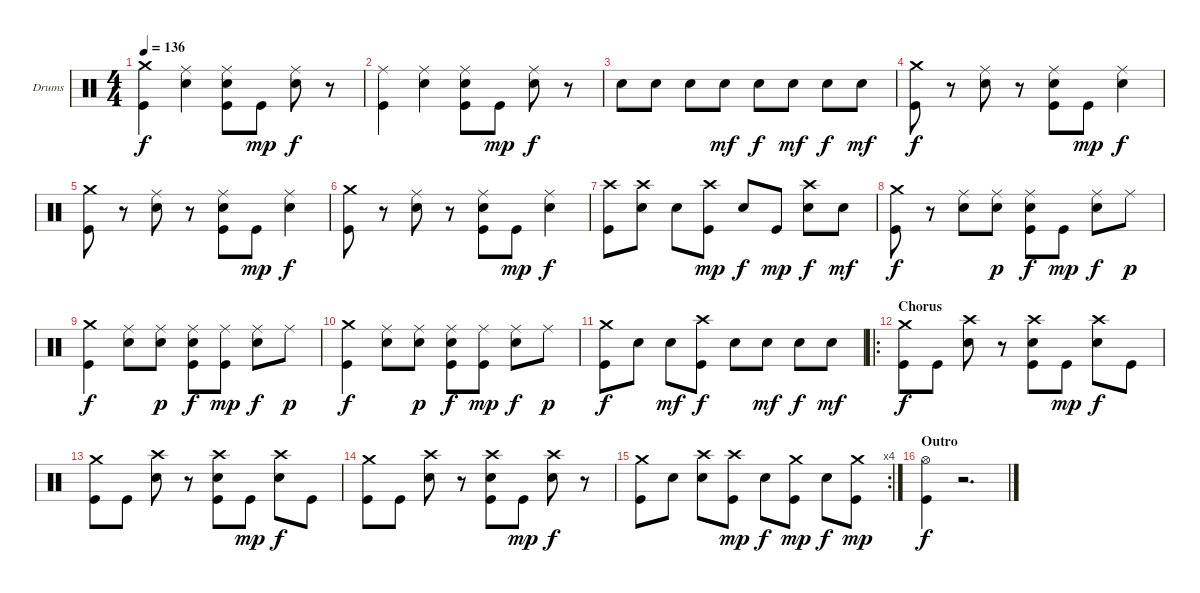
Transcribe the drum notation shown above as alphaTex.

\bracketExtendMode groupsimilarinstruments
\firstSystemTrackNameOrientation horizontal
\otherSystemsTrackNameOrientation horizontal
\track ("Drumkit" "Drums") {instrument percussion}
\staff {score}
\articulation defaults
\ts (4 4)
\tempo 136
\clef neutral
\ks c
("Kick (hit)" "Crash medium (hit)").4{dy f} ("Snare (hit) 2" "Ride (middle)").4 ("Snare (hit) 2" "Kick (hit)" "Ride (middle)").8 "Kick (hit)".8{dy mp} ("Snare (hit) 2" "Ride (middle)").8{dy f} r.8 |
("Kick (hit)" "Ride (middle)").4 ("Snare (hit) 2" "Ride (middle)").4 ("Snare (hit) 2" "Kick (hit)" "Ride (middle)").8 "Kick (hit)".8{dy mp} ("Snare (hit) 2" "Ride (middle)").8{dy f} r.8 |
"Snare (hit) 2".8 "Snare (hit) 2".8 "Snare (hit) 2".8 "Snare (hit) 2".8{dy mf} "Snare (hit) 2".8{dy f} "Snare (hit) 2".8{dy mf} "Snare (hit) 2".8{dy f} "Snare (hit) 2".8{dy mf} |
("Kick (hit)" "Crash medium (hit)").8{dy f} r.8 ("Snare (hit) 2" "Ride (middle)").8 r.8 ("Snare (hit) 2" "Kick (hit)" "Ride (middle)").8 "Kick (hit)".8{dy mp} ("Snare (hit) 2" "Ride (middle)").4{dy f} |
("Kick (hit)" "Crash medium (hit)").8 r.8 ("Snare (hit) 2" "Ride (middle)").8 r.8 ("Snare (hit) 2" "Kick (hit)" "Ride (middle)").8 "Kick (hit)".8{dy mp} ("Snare (hit) 2" "Ride (middle)").4{dy f} |
("Kick (hit)" "Crash medium (hit)").8 r.8 ("Snare (hit) 2" "Ride (middle)").8 r.8 ("Snare (hit) 2" "Kick (hit)" "Ride (middle)").8 "Kick (hit)".8{dy mp} ("Snare (hit) 2" "Ride (middle)").4{dy f} |
("Kick (hit)" "Crash high (hit)").8 ("Snare (hit) 2" "Crash high (hit)").8 "Snare (hit) 2".8 ("Kick (hit)" "Crash high (hit)").8{dy mp} "Snare (hit) 2".8{dy f} "Kick (hit)".8{dy mp} ("Snare (hit) 2" "Crash high (hit)").8{dy f} "Snare (hit) 2".8{dy mf} |
("Kick (hit)" "Crash medium (hit)").8{dy f} r.8 ("Snare (hit) 2" "Ride (middle)").8 ("Ride (middle)" "Snare (hit) 2").8{dy p} ("Kick (hit)" "Ride (middle)" "Snare (hit) 2").8{dy f} "Kick (hit)".8{dy mp} ("Snare (hit) 2" "Ride (middle)").8{dy f} "Ride (middle)".8{dy p} |
("Kick (hit)" "Crash medium (hit)").4{dy f} ("Snare (hit) 2" "Ride (middle)").8 ("Ride (middle)" "Snare (hit) 2").8{dy p} ("Kick (hit)" "Ride (middle)" "Snare (hit) 2").8{dy f} ("Kick (hit)" "Ride (middle)").8{dy mp} ("Snare (hit) 2" "Ride (middle)").8{dy f} "Ride (middle)".8{dy p} |
("Kick (hit)" "Crash medium (hit)").4{dy f} ("Snare (hit) 2" "Ride (middle)").8 ("Ride (middle)" "Snare (hit) 2").8{dy p} ("Kick (hit)" "Ride (middle)" "Snare (hit) 2").8{dy f} ("Kick (hit)" "Ride (middle)").8{dy mp} ("Snare (hit) 2" "Ride (middle)").8{dy f} "Ride (middle)".8{dy p} |
("Kick (hit)" "Crash medium (hit)").8{dy f} "Snare (hit) 2".8 "Snare (hit) 2".8{dy mf} ("Kick (hit)" "Crash high (hit)").8{dy f} "Snare (hit) 2".8 "Snare (hit) 2".8{dy mf} "Snare (hit) 2".8{dy f} "Snare (hit) 2".8{dy mf} |
\ro
\section ("" "Chorus")
("Kick (hit)" "Crash medium (hit)").8{dy f} "Kick (hit)".8 ("Snare (hit) 2" "Crash high (hit)").8 r.8 ("Snare (hit) 2" "Kick (hit)" "Crash high (hit)").8 "Kick (hit)".8{dy mp} ("Snare (hit) 2" "Crash high (hit)").8{dy f} "Kick (hit)".8 |
("Kick (hit)" "Crash medium (hit)").8 "Kick (hit)".8 ("Snare (hit) 2" "Crash high (hit)").8 r.8 ("Snare (hit) 2" "Kick (hit)" "Crash high (hit)").8 "Kick (hit)".8{dy mp} ("Snare (hit) 2" "Crash high (hit)").8{dy f} "Kick (hit)".8 |
("Kick (hit)" "Crash medium (hit)").8 "Kick (hit)".8 ("Snare (hit) 2" "Crash high (hit)").8 r.8 ("Snare (hit) 2" "Kick (hit)" "Crash high (hit)").8 "Kick (hit)".8{dy mp} ("Snare (hit) 2" "Crash high (hit)").8{dy f} r.8 |
\rc 4
("Kick (hit)" "Crash medium (hit)").8 "Snare (hit) 2".8 ("Snare (hit) 2" "Crash high (hit)").8 ("Kick (hit)" "Crash high (hit)").8{dy mp} "Snare (hit) 2".8{dy f} ("Kick (hit)" "Crash medium (hit)").8{dy mp} "Snare (hit) 2".8{dy f} ("Kick (hit)" "Crash medium (hit)").8{dy mp} |
\section ("" "Outro")
("Kick (hit)" "Hi-Hat (open)").4{dy f} r.2{d}
